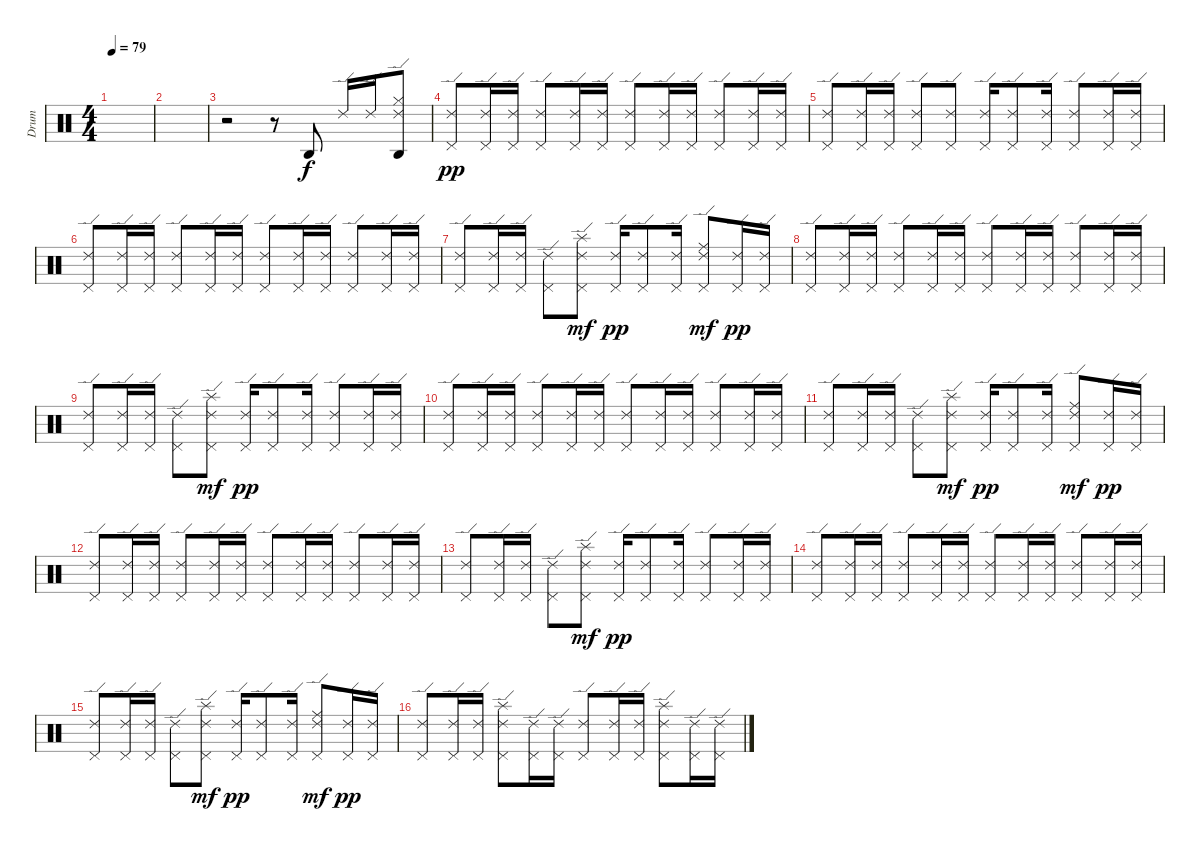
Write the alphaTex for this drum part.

\track ("Drum" "Drum") {instrument percussion}
\staff {score}
\articulation defaults
\ts (4 4)
\tempo 79
\clef neutral
\ks c
|
|
r.2 r.8 "Agogo high (hit)".8 "Ride (edge) 2".16 "Ride (edge) 2".16 ("Ride (edge) 2" "Agogo high (hit)" "Hi-Hat (closed)").8 |
("Ride (edge) 2" "Pedal Hi-Hat (hit)").8{dy pp} ("Ride (edge) 2" "Pedal Hi-Hat (hit)").16 ("Ride (edge) 2" "Pedal Hi-Hat (hit)").16 ("Ride (edge) 2" "Pedal Hi-Hat (hit)").8 ("Ride (edge) 2" "Pedal Hi-Hat (hit)").16 ("Ride (edge) 2" "Pedal Hi-Hat (hit)").16 ("Ride (edge) 2" "Pedal Hi-Hat (hit)").8 ("Ride (edge) 2" "Pedal Hi-Hat (hit)").16 ("Ride (edge) 2" "Pedal Hi-Hat (hit)").16 ("Ride (edge) 2" "Pedal Hi-Hat (hit)").8 ("Ride (edge) 2" "Pedal Hi-Hat (hit)").16 ("Ride (edge) 2" "Pedal Hi-Hat (hit)").16 |
("Ride (edge) 2" "Pedal Hi-Hat (hit)").8 ("Ride (edge) 2" "Pedal Hi-Hat (hit)").16 ("Ride (edge) 2" "Pedal Hi-Hat (hit)").16 ("Ride (edge) 2" "Pedal Hi-Hat (hit)").8 ("Ride (edge) 2" "Pedal Hi-Hat (hit)").8 ("Ride (edge) 2" "Pedal Hi-Hat (hit)").16 ("Ride (edge) 2" "Pedal Hi-Hat (hit)").8 ("Ride (edge) 2" "Pedal Hi-Hat (hit)").16 ("Ride (edge) 2" "Pedal Hi-Hat (hit)").8 ("Ride (edge) 2" "Pedal Hi-Hat (hit)").16 ("Ride (edge) 2" "Pedal Hi-Hat (hit)").16 |
("Ride (edge) 2" "Pedal Hi-Hat (hit)").8 ("Ride (edge) 2" "Pedal Hi-Hat (hit)").16 ("Ride (edge) 2" "Pedal Hi-Hat (hit)").16 ("Ride (edge) 2" "Pedal Hi-Hat (hit)").8 ("Ride (edge) 2" "Pedal Hi-Hat (hit)").16 ("Ride (edge) 2" "Pedal Hi-Hat (hit)").16 ("Ride (edge) 2" "Pedal Hi-Hat (hit)").8 ("Ride (edge) 2" "Pedal Hi-Hat (hit)").16 ("Ride (edge) 2" "Pedal Hi-Hat (hit)").16 ("Ride (edge) 2" "Pedal Hi-Hat (hit)").8 ("Ride (edge) 2" "Pedal Hi-Hat (hit)").16 ("Ride (edge) 2" "Pedal Hi-Hat (hit)").16 |
("Ride (edge) 2" "Pedal Hi-Hat (hit)").8 ("Ride (edge) 2" "Pedal Hi-Hat (hit)").16 ("Ride (edge) 2" "Pedal Hi-Hat (hit)").16 ("Ride (edge) 2" "Pedal Hi-Hat (hit)").8 ("Ride (edge) 2" "Pedal Hi-Hat (hit)" "Splash (hit)").8{dy mf} ("Ride (edge) 2" "Pedal Hi-Hat (hit)").16{dy pp} ("Ride (edge) 2" "Pedal Hi-Hat (hit)").8 ("Ride (edge) 2" "Pedal Hi-Hat (hit)").16 ("Ride (edge) 2" "Pedal Hi-Hat (hit)" "Ride (middle)").8{dy mf} ("Ride (edge) 2" "Pedal Hi-Hat (hit)").16{dy pp} ("Ride (edge) 2" "Pedal Hi-Hat (hit)").16 |
("Ride (edge) 2" "Pedal Hi-Hat (hit)").8 ("Ride (edge) 2" "Pedal Hi-Hat (hit)").16 ("Ride (edge) 2" "Pedal Hi-Hat (hit)").16 ("Ride (edge) 2" "Pedal Hi-Hat (hit)").8 ("Ride (edge) 2" "Pedal Hi-Hat (hit)").16 ("Ride (edge) 2" "Pedal Hi-Hat (hit)").16 ("Ride (edge) 2" "Pedal Hi-Hat (hit)").8 ("Ride (edge) 2" "Pedal Hi-Hat (hit)").16 ("Ride (edge) 2" "Pedal Hi-Hat (hit)").16 ("Ride (edge) 2" "Pedal Hi-Hat (hit)").8 ("Ride (edge) 2" "Pedal Hi-Hat (hit)").16 ("Ride (edge) 2" "Pedal Hi-Hat (hit)").16 |
("Ride (edge) 2" "Pedal Hi-Hat (hit)").8 ("Ride (edge) 2" "Pedal Hi-Hat (hit)").16 ("Ride (edge) 2" "Pedal Hi-Hat (hit)").16 ("Ride (edge) 2" "Pedal Hi-Hat (hit)").8 ("Ride (edge) 2" "Pedal Hi-Hat (hit)" "Splash (hit)").8{dy mf} ("Ride (edge) 2" "Pedal Hi-Hat (hit)").16{dy pp} ("Ride (edge) 2" "Pedal Hi-Hat (hit)").8 ("Ride (edge) 2" "Pedal Hi-Hat (hit)").16 ("Ride (edge) 2" "Pedal Hi-Hat (hit)").8 ("Ride (edge) 2" "Pedal Hi-Hat (hit)").16 ("Ride (edge) 2" "Pedal Hi-Hat (hit)").16 |
("Ride (edge) 2" "Pedal Hi-Hat (hit)").8 ("Ride (edge) 2" "Pedal Hi-Hat (hit)").16 ("Ride (edge) 2" "Pedal Hi-Hat (hit)").16 ("Ride (edge) 2" "Pedal Hi-Hat (hit)").8 ("Ride (edge) 2" "Pedal Hi-Hat (hit)").16 ("Ride (edge) 2" "Pedal Hi-Hat (hit)").16 ("Ride (edge) 2" "Pedal Hi-Hat (hit)").8 ("Ride (edge) 2" "Pedal Hi-Hat (hit)").16 ("Ride (edge) 2" "Pedal Hi-Hat (hit)").16 ("Ride (edge) 2" "Pedal Hi-Hat (hit)").8 ("Ride (edge) 2" "Pedal Hi-Hat (hit)").16 ("Ride (edge) 2" "Pedal Hi-Hat (hit)").16 |
("Ride (edge) 2" "Pedal Hi-Hat (hit)").8 ("Ride (edge) 2" "Pedal Hi-Hat (hit)").16 ("Ride (edge) 2" "Pedal Hi-Hat (hit)").16 ("Ride (edge) 2" "Pedal Hi-Hat (hit)").8 ("Ride (edge) 2" "Pedal Hi-Hat (hit)" "Splash (hit)").8{dy mf} ("Ride (edge) 2" "Pedal Hi-Hat (hit)").16{dy pp} ("Ride (edge) 2" "Pedal Hi-Hat (hit)").8 ("Ride (edge) 2" "Pedal Hi-Hat (hit)").16 ("Ride (edge) 2" "Pedal Hi-Hat (hit)" "Ride (middle)").8{dy mf} ("Ride (edge) 2" "Pedal Hi-Hat (hit)").16{dy pp} ("Ride (edge) 2" "Pedal Hi-Hat (hit)").16 |
("Ride (edge) 2" "Pedal Hi-Hat (hit)").8 ("Ride (edge) 2" "Pedal Hi-Hat (hit)").16 ("Ride (edge) 2" "Pedal Hi-Hat (hit)").16 ("Ride (edge) 2" "Pedal Hi-Hat (hit)").8 ("Ride (edge) 2" "Pedal Hi-Hat (hit)").16 ("Ride (edge) 2" "Pedal Hi-Hat (hit)").16 ("Ride (edge) 2" "Pedal Hi-Hat (hit)").8 ("Ride (edge) 2" "Pedal Hi-Hat (hit)").16 ("Ride (edge) 2" "Pedal Hi-Hat (hit)").16 ("Ride (edge) 2" "Pedal Hi-Hat (hit)").8 ("Ride (edge) 2" "Pedal Hi-Hat (hit)").16 ("Ride (edge) 2" "Pedal Hi-Hat (hit)").16 |
("Ride (edge) 2" "Pedal Hi-Hat (hit)").8 ("Ride (edge) 2" "Pedal Hi-Hat (hit)").16 ("Ride (edge) 2" "Pedal Hi-Hat (hit)").16 ("Ride (edge) 2" "Pedal Hi-Hat (hit)").8 ("Ride (edge) 2" "Pedal Hi-Hat (hit)" "Splash (hit)").8{dy mf} ("Ride (edge) 2" "Pedal Hi-Hat (hit)").16{dy pp} ("Ride (edge) 2" "Pedal Hi-Hat (hit)").8 ("Ride (edge) 2" "Pedal Hi-Hat (hit)").16 ("Ride (edge) 2" "Pedal Hi-Hat (hit)").8 ("Ride (edge) 2" "Pedal Hi-Hat (hit)").16 ("Ride (edge) 2" "Pedal Hi-Hat (hit)").16 |
("Ride (edge) 2" "Pedal Hi-Hat (hit)").8 ("Ride (edge) 2" "Pedal Hi-Hat (hit)").16 ("Ride (edge) 2" "Pedal Hi-Hat (hit)").16 ("Ride (edge) 2" "Pedal Hi-Hat (hit)").8 ("Ride (edge) 2" "Pedal Hi-Hat (hit)").16 ("Ride (edge) 2" "Pedal Hi-Hat (hit)").16 ("Ride (edge) 2" "Pedal Hi-Hat (hit)").8 ("Ride (edge) 2" "Pedal Hi-Hat (hit)").16 ("Ride (edge) 2" "Pedal Hi-Hat (hit)").16 ("Ride (edge) 2" "Pedal Hi-Hat (hit)").8 ("Ride (edge) 2" "Pedal Hi-Hat (hit)").16 ("Ride (edge) 2" "Pedal Hi-Hat (hit)").16 |
("Ride (edge) 2" "Pedal Hi-Hat (hit)").8 ("Ride (edge) 2" "Pedal Hi-Hat (hit)").16 ("Ride (edge) 2" "Pedal Hi-Hat (hit)").16 ("Ride (edge) 2" "Pedal Hi-Hat (hit)").8 ("Ride (edge) 2" "Pedal Hi-Hat (hit)" "Splash (hit)").8{dy mf} ("Ride (edge) 2" "Pedal Hi-Hat (hit)").16{dy pp} ("Ride (edge) 2" "Pedal Hi-Hat (hit)").8 ("Ride (edge) 2" "Pedal Hi-Hat (hit)").16 ("Ride (edge) 2" "Pedal Hi-Hat (hit)" "Ride (middle)").8{dy mf} ("Ride (edge) 2" "Pedal Hi-Hat (hit)").16{dy pp} ("Ride (edge) 2" "Pedal Hi-Hat (hit)").16 |
("Ride (edge) 2" "Pedal Hi-Hat (hit)").8 ("Ride (edge) 2" "Pedal Hi-Hat (hit)").16 ("Ride (edge) 2" "Pedal Hi-Hat (hit)").16 ("Ride (edge) 2" "Pedal Hi-Hat (hit)" "Splash (hit)").8 ("Ride (edge) 2" "Pedal Hi-Hat (hit)").16 ("Ride (edge) 2" "Pedal Hi-Hat (hit)").16 ("Ride (edge) 2" "Pedal Hi-Hat (hit)").8 ("Ride (edge) 2" "Pedal Hi-Hat (hit)").16 ("Ride (edge) 2" "Pedal Hi-Hat (hit)").16 ("Ride (edge) 2" "Pedal Hi-Hat (hit)" "Splash (hit)").8 ("Ride (edge) 2" "Pedal Hi-Hat (hit)").16 ("Ride (edge) 2" "Pedal Hi-Hat (hit)").16
